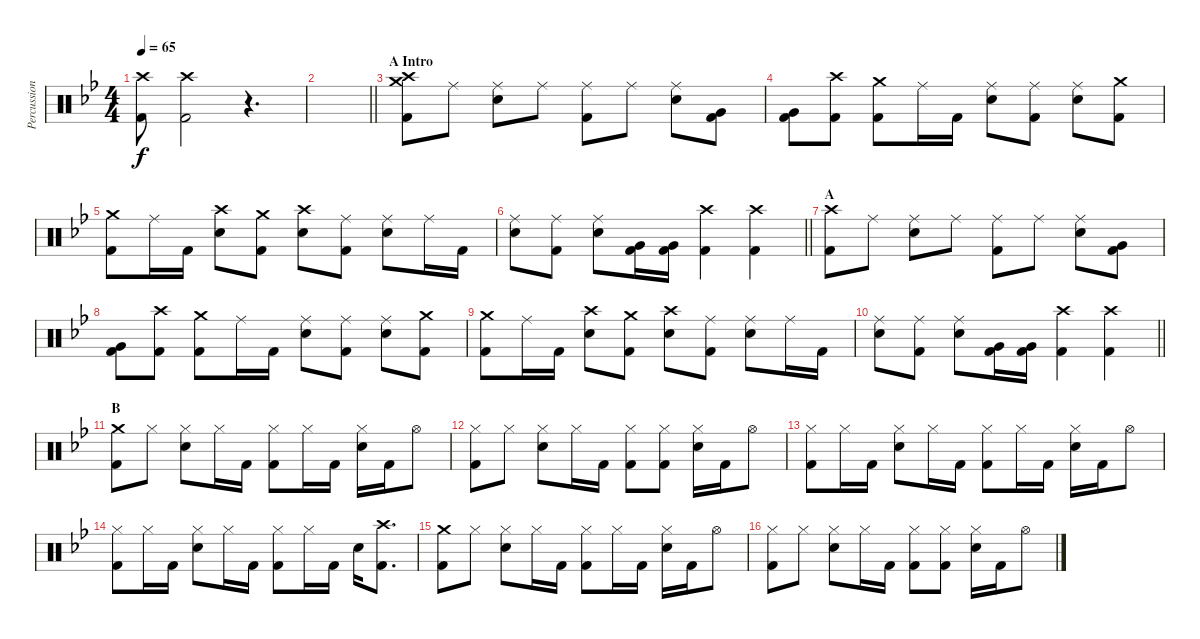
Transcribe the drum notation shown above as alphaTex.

\track ("Percussion" "Percussion") {instrument percussion}
\staff {score}
\articulation defaults
\ts (4 4)
\tempo 65
\clef neutral
\ks bb
("Crash high (hit)" "Kick (hit) 2").8{dy f} ("Kick (hit) 2" "Crash high (hit)").2 r.4{d} |
\barLineRight lightlight
|
\section ("" "A Intro")
("Crash high (hit)" "Kick (hit) 2" "Crash medium (hit)").8 "Ride (middle)".8 ("Ride (middle)" "Snare (hit) 2").8 "Ride (middle)".8 ("Ride (middle)" "Kick (hit) 2").8 "Ride (middle)".8 ("Ride (middle)" "Snare (hit) 2").8 ("Very Low Tom (hit)" "Kick (hit) 2").8 |
("Very Low Tom (hit)" "Kick (hit) 2").8 ("Crash high (hit)" "Kick (hit) 2").8 ("Crash medium (hit)" "Kick (hit) 2").8 "Ride (middle)".16 "Kick (hit) 2".16 ("Snare (hit) 2" "Ride (middle)").8 ("Ride (middle)" "Kick (hit) 2").8 ("Ride (middle)" "Snare (hit) 2").8 ("Crash medium (hit)" "Kick (hit) 2").8 |
("Crash medium (hit)" "Kick (hit) 2").8 "Ride (middle)".16 "Kick (hit) 2".16 ("Snare (hit) 2" "Crash high (hit)").8 ("Crash medium (hit)" "Kick (hit) 2").8 ("Crash high (hit)" "Snare (hit) 2").8 ("Ride (middle)" "Kick (hit) 2").8 ("Snare (hit) 2" "Ride (middle)").8 "Ride (middle)".16 "Kick (hit) 2".16 |
\barLineRight lightlight
("Snare (hit) 2" "Ride (middle)").8 ("Kick (hit) 2" "Ride (middle)").8 ("Ride (middle)" "Snare (hit) 2").8 ("Kick (hit) 2" "Very Low Tom (hit)").16 ("Kick (hit) 2" "Very Low Tom (hit)").16 ("Kick (hit) 2" "Crash high (hit)").4 ("Kick (hit) 2" "Crash high (hit)").4 |
\section ("" "A")
("Crash high (hit)" "Kick (hit) 2").8 "Ride (middle)".8 ("Ride (middle)" "Snare (hit) 2").8 "Ride (middle)".8 ("Ride (middle)" "Kick (hit) 2").8 "Ride (middle)".8 ("Ride (middle)" "Snare (hit) 2").8 ("Very Low Tom (hit)" "Kick (hit) 2").8 |
("Very Low Tom (hit)" "Kick (hit) 2").8 ("Crash high (hit)" "Kick (hit) 2").8 ("Crash medium (hit)" "Kick (hit) 2").8 "Ride (middle)".16 "Kick (hit) 2".16 ("Snare (hit) 2" "Ride (middle)").8 ("Ride (middle)" "Kick (hit) 2").8 ("Ride (middle)" "Snare (hit) 2").8 ("Crash medium (hit)" "Kick (hit) 2").8 |
("Crash medium (hit)" "Kick (hit) 2").8 "Ride (middle)".16 "Kick (hit) 2".16 ("Snare (hit) 2" "Crash high (hit)").8 ("Crash medium (hit)" "Kick (hit) 2").8 ("Crash high (hit)" "Snare (hit) 2").8 ("Ride (middle)" "Kick (hit) 2").8 ("Snare (hit) 2" "Ride (middle)").8 "Ride (middle)".16 "Kick (hit) 2".16 |
\barLineRight lightlight
("Snare (hit) 2" "Ride (middle)").8 ("Kick (hit) 2" "Ride (middle)").8 ("Ride (middle)" "Snare (hit) 2").8 ("Kick (hit) 2" "Very Low Tom (hit)").16 ("Kick (hit) 2" "Very Low Tom (hit)").16 ("Kick (hit) 2" "Crash high (hit)").4 ("Kick (hit) 2" "Crash high (hit)").4 |
\section ("" "B")
("Kick (hit) 2" "Crash medium (hit)").8 "Hi-Hat (closed)".8 ("Hi-Hat (closed)" "Snare (hit) 2").8 "Hi-Hat (closed)".16 "Kick (hit) 2".16 ("Kick (hit) 2" "Hi-Hat (closed)").8 "Hi-Hat (closed)".16 "Kick (hit) 2".16 ("Hi-Hat (closed)" "Snare (hit) 2").16 "Kick (hit) 2".16 "Hi-Hat (open)".8 |
("Kick (hit) 2" "Hi-Hat (closed)").8 "Hi-Hat (closed)".8 ("Hi-Hat (closed)" "Snare (hit) 2").8 "Hi-Hat (closed)".16 "Kick (hit) 2".16 ("Kick (hit) 2" "Hi-Hat (closed)").8 ("Hi-Hat (closed)" "Kick (hit) 2").8 ("Hi-Hat (closed)" "Snare (hit) 2").16 "Kick (hit) 2".16 "Hi-Hat (open)".8 |
("Kick (hit) 2" "Hi-Hat (closed)").8 "Hi-Hat (closed)".16 "Kick (hit) 2".16 ("Hi-Hat (closed)" "Snare (hit) 2").8 "Hi-Hat (closed)".16 "Kick (hit) 2".16 ("Kick (hit) 2" "Hi-Hat (closed)").8 "Hi-Hat (closed)".16 "Kick (hit) 2".16 ("Hi-Hat (closed)" "Snare (hit) 2").16 "Kick (hit) 2".16 "Hi-Hat (open)".8 |
("Kick (hit) 2" "Hi-Hat (closed)").8 "Hi-Hat (closed)".16 "Kick (hit) 2".16 ("Hi-Hat (closed)" "Snare (hit) 2").8 "Hi-Hat (closed)".16 "Kick (hit) 2".16 ("Kick (hit) 2" "Hi-Hat (closed)").8 "Hi-Hat (closed)".16 "Kick (hit) 2".16 "Snare (hit) 2".16 ("Crash high (hit)" "Kick (hit) 2").8{d} |
("Kick (hit) 2" "Crash medium (hit)").8 "Hi-Hat (closed)".8 ("Hi-Hat (closed)" "Snare (hit) 2").8 "Hi-Hat (closed)".16 "Kick (hit) 2".16 ("Kick (hit) 2" "Hi-Hat (closed)").8 "Hi-Hat (closed)".16 "Kick (hit) 2".16 ("Hi-Hat (closed)" "Snare (hit) 2").16 "Kick (hit) 2".16 "Hi-Hat (open)".8 |
("Kick (hit) 2" "Hi-Hat (closed)").8 "Hi-Hat (closed)".8 ("Hi-Hat (closed)" "Snare (hit) 2").8 "Hi-Hat (closed)".16 "Kick (hit) 2".16 ("Kick (hit) 2" "Hi-Hat (closed)").8 ("Hi-Hat (closed)" "Kick (hit) 2").8 ("Hi-Hat (closed)" "Snare (hit) 2").16 "Kick (hit) 2".16 "Hi-Hat (open)".8
